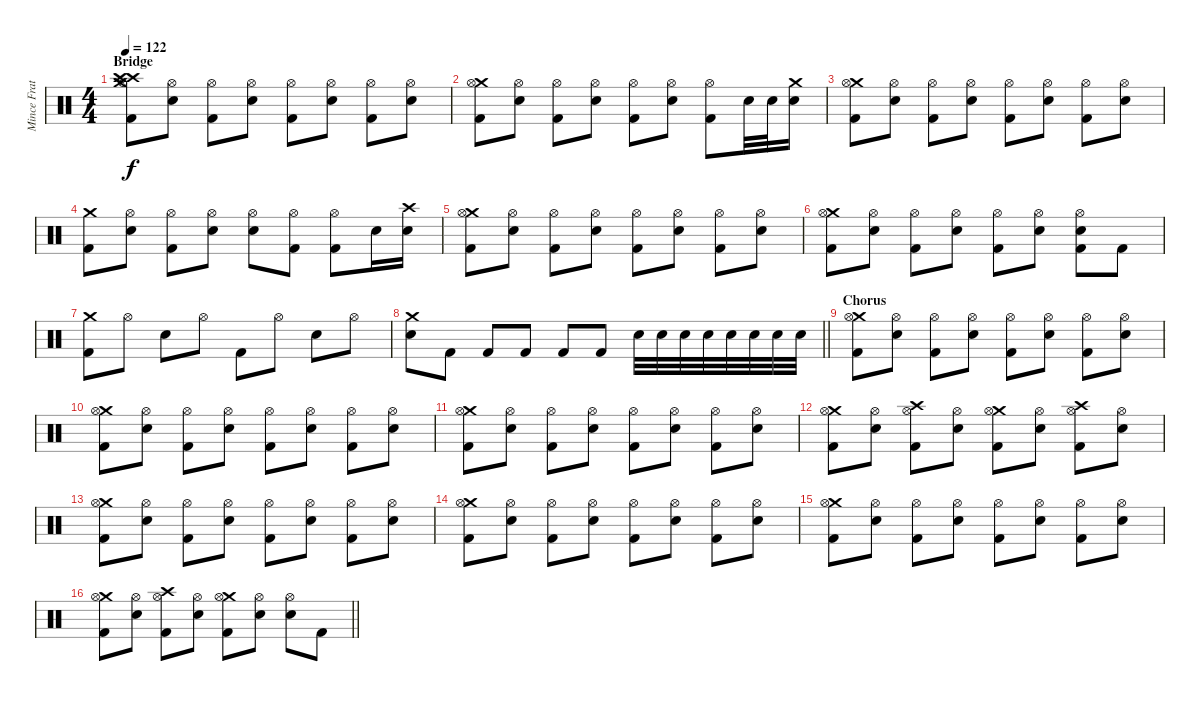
\track ("Mince Fratelli" "Mince Frat") {instrument percussion}
\staff {score}
\articulation defaults
\ts (4 4)
\section ("" "Bridge")
\tempo 122
\clef neutral
\ks c
("Crash medium (hit)" "Crash high (hit)" "Hi-Hat (open)" "Crash high (hit)" "Kick (hit) 2").8{dy f} ("Hi-Hat (open)" "Snare (hit) 2").8 ("Hi-Hat (open)" "Kick (hit) 2").8 ("Hi-Hat (open)" "Snare (hit) 2").8 ("Hi-Hat (open)" "Kick (hit) 2").8 ("Hi-Hat (open)" "Snare (hit) 2").8 ("Hi-Hat (open)" "Kick (hit) 2").8 ("Hi-Hat (open)" "Snare (hit) 2").8 |
("Crash medium (hit)" "Hi-Hat (open)" "Kick (hit) 2").8 ("Hi-Hat (open)" "Snare (hit) 2").8 ("Hi-Hat (open)" "Kick (hit) 2").8 ("Hi-Hat (open)" "Snare (hit) 2").8 ("Hi-Hat (open)" "Kick (hit) 2").8 ("Hi-Hat (open)" "Snare (hit) 2").8 ("Hi-Hat (open)" "Kick (hit) 2").8 "Snare (hit) 2".32 "Snare (hit) 2".32 ("Crash medium (hit)" "Snare (hit) 2").16 |
("Crash medium (hit)" "Hi-Hat (open)" "Kick (hit) 2").8 ("Hi-Hat (open)" "Snare (hit) 2").8 ("Hi-Hat (open)" "Kick (hit) 2").8 ("Hi-Hat (open)" "Snare (hit) 2").8 ("Hi-Hat (open)" "Kick (hit) 2").8 ("Hi-Hat (open)" "Snare (hit) 2").8 ("Hi-Hat (open)" "Kick (hit) 2").8 ("Hi-Hat (open)" "Snare (hit) 2").8 |
("Crash medium (hit)" "Kick (hit) 2").8 ("Hi-Hat (open)" "Snare (hit) 2").8 ("Hi-Hat (open)" "Kick (hit) 2").8 ("Hi-Hat (open)" "Snare (hit) 2").8 ("Hi-Hat (open)" "Snare (hit) 2").8 ("Hi-Hat (open)" "Kick (hit) 2").8 ("Hi-Hat (open)" "Kick (hit) 2").8 "Snare (hit) 2".16 ("Crash high (hit)" "Snare (hit) 2").16 |
("Crash medium (hit)" "Hi-Hat (open)" "Kick (hit) 2").8 ("Hi-Hat (open)" "Snare (hit) 2").8 ("Hi-Hat (open)" "Kick (hit) 2").8 ("Hi-Hat (open)" "Snare (hit) 2").8 ("Hi-Hat (open)" "Kick (hit) 2").8 ("Hi-Hat (open)" "Snare (hit) 2").8 ("Hi-Hat (open)" "Kick (hit) 2").8 ("Hi-Hat (open)" "Snare (hit) 2").8 |
("Crash medium (hit)" "Hi-Hat (open)" "Kick (hit) 2").8 ("Hi-Hat (open)" "Snare (hit) 2").8 ("Hi-Hat (open)" "Kick (hit) 2").8 ("Hi-Hat (open)" "Snare (hit) 2").8 ("Hi-Hat (open)" "Kick (hit) 2").8 ("Hi-Hat (open)" "Snare (hit) 2").8 ("Hi-Hat (open)" "Snare (hit) 2" "Kick (hit) 2").8 "Kick (hit) 2".8 |
("Crash medium (hit)" "Kick (hit) 2").8 "Hi-Hat (open)".8 "Snare (hit) 2".8 "Hi-Hat (open)".8 "Kick (hit) 2".8 "Hi-Hat (open)".8 "Snare (hit) 2".8 "Hi-Hat (open)".8 |
\barLineRight lightlight
("Crash medium (hit)" "Snare (hit) 2").8 "Kick (hit) 2".8 "Kick (hit) 2".8 "Kick (hit) 2".8 "Kick (hit) 2".8 "Kick (hit) 2".8 "Snare (hit) 2".32 "Snare (hit) 2".32 "Snare (hit) 2".32 "Snare (hit) 2".32 "Snare (hit) 2".32 "Snare (hit) 2".32 "Snare (hit) 2".32 "Snare (hit) 2".32 |
\section ("" "Chorus")
("Crash medium (hit)" "Hi-Hat (open)" "Kick (hit) 2").8 ("Hi-Hat (open)" "Snare (hit) 2").8 ("Hi-Hat (open)" "Kick (hit) 2").8 ("Hi-Hat (open)" "Snare (hit) 2").8 ("Hi-Hat (open)" "Kick (hit) 2").8 ("Hi-Hat (open)" "Snare (hit) 2").8 ("Hi-Hat (open)" "Kick (hit) 2").8 ("Hi-Hat (open)" "Snare (hit) 2").8 |
("Crash medium (hit)" "Hi-Hat (open)" "Kick (hit) 2").8 ("Hi-Hat (open)" "Snare (hit) 2").8 ("Hi-Hat (open)" "Kick (hit) 2").8 ("Hi-Hat (open)" "Snare (hit) 2").8 ("Hi-Hat (open)" "Kick (hit) 2").8 ("Hi-Hat (open)" "Snare (hit) 2").8 ("Hi-Hat (open)" "Kick (hit) 2").8 ("Hi-Hat (open)" "Snare (hit) 2").8 |
("Crash medium (hit)" "Hi-Hat (open)" "Kick (hit) 2").8 ("Hi-Hat (open)" "Snare (hit) 2").8 ("Hi-Hat (open)" "Kick (hit) 2").8 ("Hi-Hat (open)" "Snare (hit) 2").8 ("Hi-Hat (open)" "Kick (hit) 2").8 ("Hi-Hat (open)" "Snare (hit) 2").8 ("Hi-Hat (open)" "Kick (hit) 2").8 ("Hi-Hat (open)" "Snare (hit) 2").8 |
("Crash medium (hit)" "Hi-Hat (open)" "Kick (hit) 2").8 ("Hi-Hat (open)" "Snare (hit) 2").8 ("Crash high (hit)" "Hi-Hat (open)" "Kick (hit) 2").8 ("Hi-Hat (open)" "Snare (hit) 2").8 ("Crash medium (hit)" "Hi-Hat (open)" "Kick (hit) 2").8 ("Hi-Hat (open)" "Snare (hit) 2").8 ("Crash high (hit)" "Hi-Hat (open)" "Kick (hit) 2").8 ("Hi-Hat (open)" "Snare (hit) 2").8 |
("Crash medium (hit)" "Hi-Hat (open)" "Kick (hit) 2").8 ("Hi-Hat (open)" "Snare (hit) 2").8 ("Hi-Hat (open)" "Kick (hit) 2").8 ("Hi-Hat (open)" "Snare (hit) 2").8 ("Hi-Hat (open)" "Kick (hit) 2").8 ("Hi-Hat (open)" "Snare (hit) 2").8 ("Hi-Hat (open)" "Kick (hit) 2").8 ("Hi-Hat (open)" "Snare (hit) 2").8 |
("Crash medium (hit)" "Hi-Hat (open)" "Kick (hit) 2").8 ("Hi-Hat (open)" "Snare (hit) 2").8 ("Hi-Hat (open)" "Kick (hit) 2").8 ("Hi-Hat (open)" "Snare (hit) 2").8 ("Hi-Hat (open)" "Kick (hit) 2").8 ("Hi-Hat (open)" "Snare (hit) 2").8 ("Hi-Hat (open)" "Kick (hit) 2").8 ("Hi-Hat (open)" "Snare (hit) 2").8 |
("Crash medium (hit)" "Hi-Hat (open)" "Kick (hit) 2").8 ("Hi-Hat (open)" "Snare (hit) 2").8 ("Hi-Hat (open)" "Kick (hit) 2").8 ("Hi-Hat (open)" "Snare (hit) 2").8 ("Hi-Hat (open)" "Kick (hit) 2").8 ("Hi-Hat (open)" "Snare (hit) 2").8 ("Hi-Hat (open)" "Kick (hit) 2").8 ("Hi-Hat (open)" "Snare (hit) 2").8 |
\barLineRight lightlight
("Crash medium (hit)" "Hi-Hat (open)" "Kick (hit) 2").8 ("Hi-Hat (open)" "Snare (hit) 2").8 ("Crash high (hit)" "Hi-Hat (open)" "Kick (hit) 2").8 ("Hi-Hat (open)" "Snare (hit) 2").8 ("Crash medium (hit)" "Hi-Hat (open)" "Kick (hit) 2").8 ("Hi-Hat (open)" "Snare (hit) 2").8 ("Hi-Hat (open)" "Snare (hit) 2").8 "Kick (hit) 2".8
